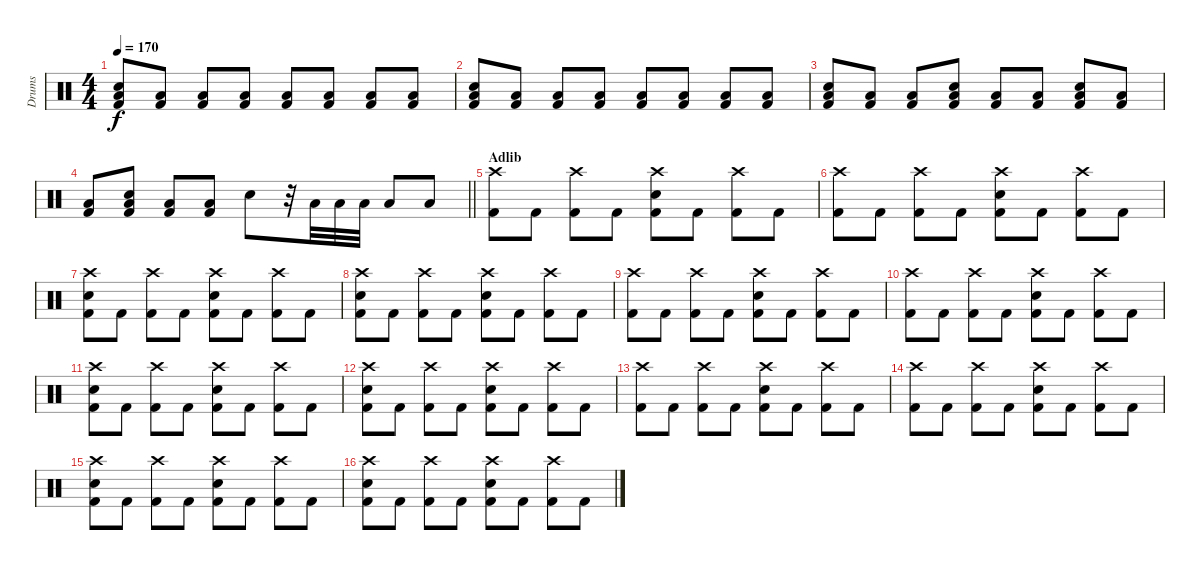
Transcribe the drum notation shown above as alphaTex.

\track ("Drums" "Drums") {instrument percussion}
\staff {score}
\articulation defaults
\ts (4 4)
\tempo 170
\clef neutral
\ks c
("Electric Snare (hit)" "Low Tom (hit)" "Kick (hit) 2").8{dy f} ("Low Tom (hit)" "Kick (hit) 2").8 ("Low Tom (hit)" "Kick (hit) 2").8 ("Low Tom (hit)" "Kick (hit) 2").8 ("Low Tom (hit)" "Kick (hit) 2").8 ("Low Tom (hit)" "Kick (hit) 2").8 ("Low Tom (hit)" "Kick (hit) 2").8 ("Low Tom (hit)" "Kick (hit) 2").8 |
("Electric Snare (hit)" "Low Tom (hit)" "Kick (hit) 2").8 ("Low Tom (hit)" "Kick (hit) 2").8 ("Low Tom (hit)" "Kick (hit) 2").8 ("Low Tom (hit)" "Kick (hit) 2").8 ("Low Tom (hit)" "Kick (hit) 2").8 ("Low Tom (hit)" "Kick (hit) 2").8 ("Low Tom (hit)" "Kick (hit) 2").8 ("Low Tom (hit)" "Kick (hit) 2").8 |
("Electric Snare (hit)" "Low Tom (hit)" "Kick (hit) 2").8 ("Low Tom (hit)" "Kick (hit) 2").8 ("Low Tom (hit)" "Kick (hit) 2").8 ("Electric Snare (hit)" "Low Tom (hit)" "Kick (hit) 2").8 ("Low Tom (hit)" "Kick (hit) 2").8 ("Low Tom (hit)" "Kick (hit) 2").8 ("Electric Snare (hit)" "Low Tom (hit)" "Kick (hit) 2").8 ("Low Tom (hit)" "Kick (hit) 2").8 |
\barLineRight lightlight
("Low Tom (hit)" "Kick (hit) 2").8 ("Electric Snare (hit)" "Low Tom (hit)" "Kick (hit) 2").8 ("Low Tom (hit)" "Kick (hit) 2").8 ("Low Tom (hit)" "Kick (hit) 2").8 "Electric Snare (hit)".8 r.32 "Low Tom (hit)".32 "Low Tom (hit)".32 "Low Tom (hit)".32 "Low Tom (hit)".8 "Low Tom (hit)".8 |
\section ("" "Adlib")
("Crash high (hit)" "Kick (hit) 2").8 "Kick (hit) 2".8 ("Crash high (hit)" "Kick (hit) 2").8 "Kick (hit) 2".8 ("Electric Snare (hit)" "Crash high (hit)" "Kick (hit) 2").8 "Kick (hit) 2".8 ("Crash high (hit)" "Kick (hit) 2").8 "Kick (hit) 2".8 |
("Crash high (hit)" "Kick (hit) 2").8 "Kick (hit) 2".8 ("Crash high (hit)" "Kick (hit) 2").8 "Kick (hit) 2".8 ("Electric Snare (hit)" "Crash high (hit)" "Kick (hit) 2").8 "Kick (hit) 2".8 ("Crash high (hit)" "Kick (hit) 2").8 "Kick (hit) 2".8 |
("Electric Snare (hit)" "Crash high (hit)" "Kick (hit) 2").8 "Kick (hit) 2".8 ("Crash high (hit)" "Kick (hit) 2").8 "Kick (hit) 2".8 ("Electric Snare (hit)" "Crash high (hit)" "Kick (hit) 2").8 "Kick (hit) 2".8 ("Crash high (hit)" "Kick (hit) 2").8 "Kick (hit) 2".8 |
("Electric Snare (hit)" "Crash high (hit)" "Kick (hit) 2").8 "Kick (hit) 2".8 ("Crash high (hit)" "Kick (hit) 2").8 "Kick (hit) 2".8 ("Electric Snare (hit)" "Crash high (hit)" "Kick (hit) 2").8 "Kick (hit) 2".8 ("Crash high (hit)" "Kick (hit) 2").8 "Kick (hit) 2".8 |
("Crash high (hit)" "Kick (hit) 2").8 "Kick (hit) 2".8 ("Crash high (hit)" "Kick (hit) 2").8 "Kick (hit) 2".8 ("Electric Snare (hit)" "Crash high (hit)" "Kick (hit) 2").8 "Kick (hit) 2".8 ("Crash high (hit)" "Kick (hit) 2").8 "Kick (hit) 2".8 |
("Crash high (hit)" "Kick (hit) 2").8 "Kick (hit) 2".8 ("Crash high (hit)" "Kick (hit) 2").8 "Kick (hit) 2".8 ("Electric Snare (hit)" "Crash high (hit)" "Kick (hit) 2").8 "Kick (hit) 2".8 ("Crash high (hit)" "Kick (hit) 2").8 "Kick (hit) 2".8 |
("Electric Snare (hit)" "Crash high (hit)" "Kick (hit) 2").8 "Kick (hit) 2".8 ("Crash high (hit)" "Kick (hit) 2").8 "Kick (hit) 2".8 ("Electric Snare (hit)" "Crash high (hit)" "Kick (hit) 2").8 "Kick (hit) 2".8 ("Crash high (hit)" "Kick (hit) 2").8 "Kick (hit) 2".8 |
("Electric Snare (hit)" "Crash high (hit)" "Kick (hit) 2").8 "Kick (hit) 2".8 ("Crash high (hit)" "Kick (hit) 2").8 "Kick (hit) 2".8 ("Electric Snare (hit)" "Crash high (hit)" "Kick (hit) 2").8 "Kick (hit) 2".8 ("Crash high (hit)" "Kick (hit) 2").8 "Kick (hit) 2".8 |
("Crash high (hit)" "Kick (hit) 2").8 "Kick (hit) 2".8 ("Crash high (hit)" "Kick (hit) 2").8 "Kick (hit) 2".8 ("Electric Snare (hit)" "Crash high (hit)" "Kick (hit) 2").8 "Kick (hit) 2".8 ("Crash high (hit)" "Kick (hit) 2").8 "Kick (hit) 2".8 |
("Crash high (hit)" "Kick (hit) 2").8 "Kick (hit) 2".8 ("Crash high (hit)" "Kick (hit) 2").8 "Kick (hit) 2".8 ("Electric Snare (hit)" "Crash high (hit)" "Kick (hit) 2").8 "Kick (hit) 2".8 ("Crash high (hit)" "Kick (hit) 2").8 "Kick (hit) 2".8 |
("Electric Snare (hit)" "Crash high (hit)" "Kick (hit) 2").8 "Kick (hit) 2".8 ("Crash high (hit)" "Kick (hit) 2").8 "Kick (hit) 2".8 ("Electric Snare (hit)" "Crash high (hit)" "Kick (hit) 2").8 "Kick (hit) 2".8 ("Crash high (hit)" "Kick (hit) 2").8 "Kick (hit) 2".8 |
("Electric Snare (hit)" "Crash high (hit)" "Kick (hit) 2").8 "Kick (hit) 2".8 ("Crash high (hit)" "Kick (hit) 2").8 "Kick (hit) 2".8 ("Electric Snare (hit)" "Crash high (hit)" "Kick (hit) 2").8 "Kick (hit) 2".8 ("Crash high (hit)" "Kick (hit) 2").8 "Kick (hit) 2".8
